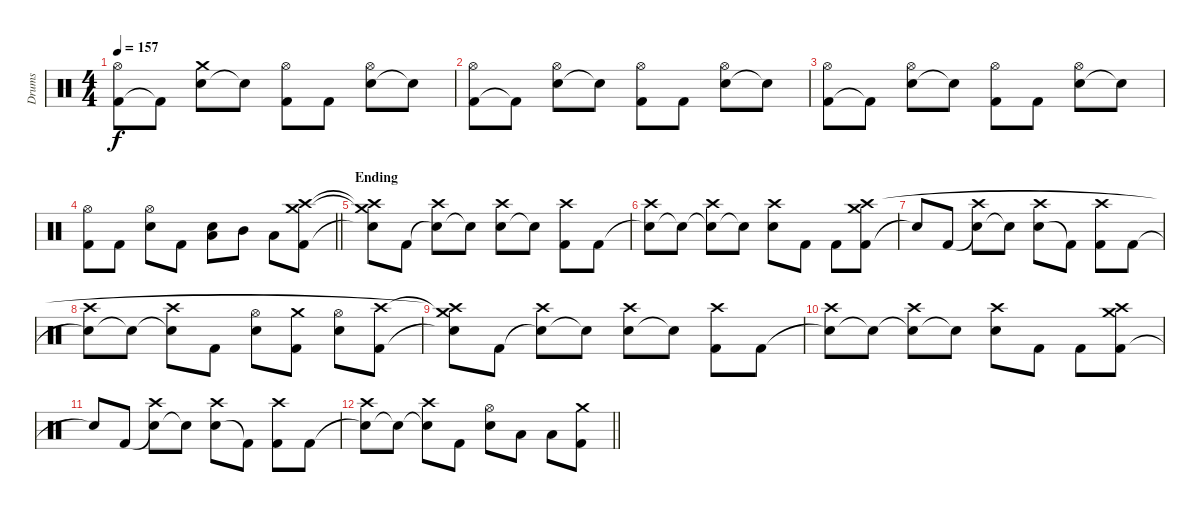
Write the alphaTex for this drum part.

\track ("Drums" "Drums") {instrument percussion}
\staff {score}
\articulation defaults
\ts (4 4)
\tempo 157
\clef neutral
\ks c
("Kick (hit) 2"{t} "Hi-Hat (open)"{t}).8{dy f} "Kick (hit) 2"{t}.8 ("Electric Snare (hit)" "Crash medium (hit)").8 "Snare (hit)"{t}.8 ("Kick (hit) 2" "Hi-Hat (open)").8 "Kick (hit) 2".8 ("Electric Snare (hit)" "Hi-Hat (open)").8 "Snare (hit)"{t}.8 |
("Kick (hit) 2" "Hi-Hat (open)").8 "Kick (hit) 2"{t}.8 ("Electric Snare (hit)" "Hi-Hat (open)").8 "Snare (hit)"{t}.8 ("Kick (hit) 2" "Hi-Hat (open)").8 "Kick (hit) 2".8 ("Electric Snare (hit)" "Hi-Hat (open)").8 "Snare (hit)"{t}.8 |
("Kick (hit) 2" "Hi-Hat (open)").8 "Kick (hit) 2"{t}.8 ("Electric Snare (hit)" "Hi-Hat (open)").8 "Snare (hit)"{t}.8 ("Kick (hit) 2" "Hi-Hat (open)").8 "Kick (hit) 2".8 ("Electric Snare (hit)" "Hi-Hat (open)").8 "Snare (hit)"{t}.8 |
\barLineRight lightlight
("Kick (hit) 2" "Hi-Hat (open)").8 "Kick (hit) 2".8 ("Electric Snare (hit)" "Hi-Hat (open)").8 "Kick (hit) 2".8 ("Electric Snare (hit)" "Low Floor Tom (hit)").8 "Mid Tom (hit)".8 "Low Tom (hit)".8 ("Kick (hit) 2" "Crash medium (hit)" "Crash high (hit)").8 |
\section ("" "Ending")
("Snare (hit)"{t} "Crash medium (hit)"{t} "Crash high (hit)"{t}).8 "Kick (hit) 2".8 ("Snare (hit)"{t} "Crash high (hit)").8 "Snare (hit)"{t}.8 ("Electric Snare (hit)" "Crash high (hit)").8 "Snare (hit)"{t}.8 ("Kick (hit) 2" "Crash high (hit)").8 "Kick (hit) 2".8 |
("Snare (hit)"{t} "Crash high (hit)").8 "Snare (hit)"{t}.8 ("Snare (hit)"{t} "Crash high (hit)").8 "Electric Snare (hit)"{t}.8 ("Electric Snare (hit)" "Crash high (hit)").8 "Kick (hit) 2".8 "Kick (hit) 2".8 ("Kick (hit) 2" "Crash medium (hit)" "Crash high (hit)").8 |
"Snare (hit)"{t}.8 "Kick (hit) 2".8 ("Snare (hit)"{t} "Crash high (hit)").8 "Electric Snare (hit)"{t}.8 ("Electric Snare (hit)" "Crash high (hit)").8 "Kick (hit) 2"{t}.8 ("Kick (hit) 2" "Crash high (hit)").8 "Kick (hit) 2".8 |
("Electric Snare (hit)"{t} "Crash high (hit)").8 "Snare (hit)"{t}.8 ("Snare (hit)"{t} "Crash high (hit)").8 "Kick (hit) 2".8 ("Electric Snare (hit)" "Hi-Hat (open)").8 ("Kick (hit) 2" "Crash medium (hit)").8 ("Electric Snare (hit)" "Hi-Hat (open)").8 ("Kick (hit) 2" "Crash high (hit)").8 |
("Snare (hit)"{t} "Crash medium (hit)"{t} "Crash high (hit)"{t}).8 "Kick (hit) 2".8 ("Snare (hit)"{t} "Crash high (hit)").8 "Snare (hit)"{t}.8 ("Electric Snare (hit)" "Crash high (hit)").8 "Snare (hit)"{t}.8 ("Kick (hit) 2" "Crash high (hit)").8 "Kick (hit) 2".8 |
("Snare (hit)"{t} "Crash high (hit)").8 "Snare (hit)"{t}.8 ("Snare (hit)"{t} "Crash high (hit)").8 "Electric Snare (hit)"{t}.8 ("Electric Snare (hit)" "Crash high (hit)").8 "Kick (hit) 2".8 "Kick (hit) 2".8 ("Kick (hit) 2" "Crash medium (hit)" "Crash high (hit)").8 |
"Snare (hit)"{t}.8 "Kick (hit) 2".8 ("Snare (hit)"{t} "Crash high (hit)").8 "Electric Snare (hit)"{t}.8 ("Electric Snare (hit)" "Crash high (hit)").8 "Kick (hit) 2"{t}.8 ("Kick (hit) 2" "Crash high (hit)").8 "Kick (hit) 2".8 |
\barLineRight lightlight
("Electric Snare (hit)"{t} "Crash high (hit)").8 "Snare (hit)"{t}.8 ("Snare (hit)"{t} "Crash high (hit)").8 "Kick (hit) 2".8 ("Electric Snare (hit)" "Hi-Hat (open)").8 "Low Floor Tom (hit)".8 "Low Floor Tom (hit)".8 ("Kick (hit) 2" "Crash medium (hit)").8
